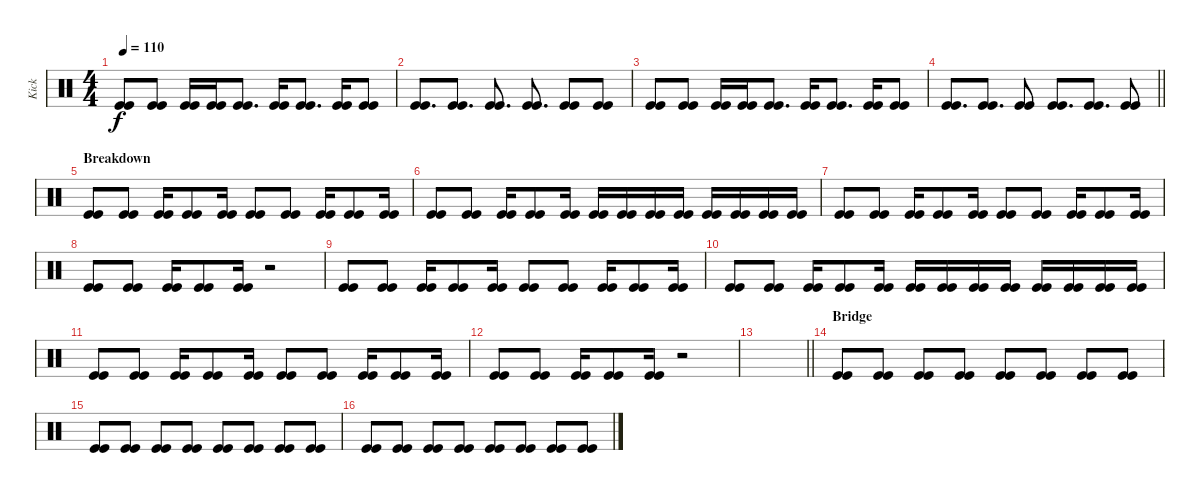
\track ("Kick" "Kick") {instrument percussion}
\staff {score}
\articulation defaults
\ts (4 4)
\tempo 110
\clef neutral
\ks c
("Kick (hit)" "Kick (hit)").8{dy f} ("Kick (hit)" "Kick (hit)").8 ("Kick (hit)" "Kick (hit)").16 ("Kick (hit)" "Kick (hit)").16 ("Kick (hit)" "Kick (hit)").8{d} ("Kick (hit)" "Kick (hit)").16 ("Kick (hit)" "Kick (hit)").8{d} ("Kick (hit)" "Kick (hit)").16 ("Kick (hit)" "Kick (hit)").8 |
("Kick (hit)" "Kick (hit)").8{d} ("Kick (hit)" "Kick (hit)").8{d} ("Kick (hit)" "Kick (hit)").8{d} ("Kick (hit)" "Kick (hit)").8{d} ("Kick (hit)" "Kick (hit)").8 ("Kick (hit)" "Kick (hit)").8 |
("Kick (hit)" "Kick (hit)").8 ("Kick (hit)" "Kick (hit)").8 ("Kick (hit)" "Kick (hit)").16 ("Kick (hit)" "Kick (hit)").16 ("Kick (hit)" "Kick (hit)").8{d} ("Kick (hit)" "Kick (hit)").16 ("Kick (hit)" "Kick (hit)").8{d} ("Kick (hit)" "Kick (hit)").16 ("Kick (hit)" "Kick (hit)").8 |
\barLineRight lightlight
("Kick (hit)" "Kick (hit)").8{d} ("Kick (hit)" "Kick (hit)").8{d} ("Kick (hit)" "Kick (hit)").8 ("Kick (hit)" "Kick (hit)").8{d} ("Kick (hit)" "Kick (hit)").8{d} ("Kick (hit)" "Kick (hit)").8 |
\section ("" "Breakdown")
("Kick (hit)" "Kick (hit)").8 ("Kick (hit)" "Kick (hit)").8 ("Kick (hit)" "Kick (hit)").16 ("Kick (hit)" "Kick (hit)").8 ("Kick (hit)" "Kick (hit)").16 ("Kick (hit)" "Kick (hit)").8 ("Kick (hit)" "Kick (hit)").8 ("Kick (hit)" "Kick (hit)").16 ("Kick (hit)" "Kick (hit)").8 ("Kick (hit)" "Kick (hit)").16 |
("Kick (hit)" "Kick (hit)").8 ("Kick (hit)" "Kick (hit)").8 ("Kick (hit)" "Kick (hit)").16 ("Kick (hit)" "Kick (hit)").8 ("Kick (hit)" "Kick (hit)").16 ("Kick (hit)" "Kick (hit)").16 ("Kick (hit)" "Kick (hit)").16 ("Kick (hit)" "Kick (hit)").16 ("Kick (hit)" "Kick (hit)").16 ("Kick (hit)" "Kick (hit)").16 ("Kick (hit)" "Kick (hit)").16 ("Kick (hit)" "Kick (hit)").16 ("Kick (hit)" "Kick (hit)").16 |
("Kick (hit)" "Kick (hit)").8 ("Kick (hit)" "Kick (hit)").8 ("Kick (hit)" "Kick (hit)").16 ("Kick (hit)" "Kick (hit)").8 ("Kick (hit)" "Kick (hit)").16 ("Kick (hit)" "Kick (hit)").8 ("Kick (hit)" "Kick (hit)").8 ("Kick (hit)" "Kick (hit)").16 ("Kick (hit)" "Kick (hit)").8 ("Kick (hit)" "Kick (hit)").16 |
("Kick (hit)" "Kick (hit)").8 ("Kick (hit)" "Kick (hit)").8 ("Kick (hit)" "Kick (hit)").16 ("Kick (hit)" "Kick (hit)").8 ("Kick (hit)" "Kick (hit)").16 r.2 |
("Kick (hit)" "Kick (hit)").8 ("Kick (hit)" "Kick (hit)").8 ("Kick (hit)" "Kick (hit)").16 ("Kick (hit)" "Kick (hit)").8 ("Kick (hit)" "Kick (hit)").16 ("Kick (hit)" "Kick (hit)").8 ("Kick (hit)" "Kick (hit)").8 ("Kick (hit)" "Kick (hit)").16 ("Kick (hit)" "Kick (hit)").8 ("Kick (hit)" "Kick (hit)").16 |
("Kick (hit)" "Kick (hit)").8 ("Kick (hit)" "Kick (hit)").8 ("Kick (hit)" "Kick (hit)").16 ("Kick (hit)" "Kick (hit)").8 ("Kick (hit)" "Kick (hit)").16 ("Kick (hit)" "Kick (hit)").16 ("Kick (hit)" "Kick (hit)").16 ("Kick (hit)" "Kick (hit)").16 ("Kick (hit)" "Kick (hit)").16 ("Kick (hit)" "Kick (hit)").16 ("Kick (hit)" "Kick (hit)").16 ("Kick (hit)" "Kick (hit)").16 ("Kick (hit)" "Kick (hit)").16 |
("Kick (hit)" "Kick (hit)").8 ("Kick (hit)" "Kick (hit)").8 ("Kick (hit)" "Kick (hit)").16 ("Kick (hit)" "Kick (hit)").8 ("Kick (hit)" "Kick (hit)").16 ("Kick (hit)" "Kick (hit)").8 ("Kick (hit)" "Kick (hit)").8 ("Kick (hit)" "Kick (hit)").16 ("Kick (hit)" "Kick (hit)").8 ("Kick (hit)" "Kick (hit)").16 |
("Kick (hit)" "Kick (hit)").8 ("Kick (hit)" "Kick (hit)").8 ("Kick (hit)" "Kick (hit)").16 ("Kick (hit)" "Kick (hit)").8 ("Kick (hit)" "Kick (hit)").16 r.2 |
\barLineRight lightlight
|
\section ("" "Bridge")
("Kick (hit)" "Kick (hit)").8 ("Kick (hit)" "Kick (hit)").8 ("Kick (hit)" "Kick (hit)").8 ("Kick (hit)" "Kick (hit)").8 ("Kick (hit)" "Kick (hit)").8 ("Kick (hit)" "Kick (hit)").8 ("Kick (hit)" "Kick (hit)").8 ("Kick (hit)" "Kick (hit)").8 |
("Kick (hit)" "Kick (hit)").8 ("Kick (hit)" "Kick (hit)").8 ("Kick (hit)" "Kick (hit)").8 ("Kick (hit)" "Kick (hit)").8 ("Kick (hit)" "Kick (hit)").8 ("Kick (hit)" "Kick (hit)").8 ("Kick (hit)" "Kick (hit)").8 ("Kick (hit)" "Kick (hit)").8 |
("Kick (hit)" "Kick (hit)").8 ("Kick (hit)" "Kick (hit)").8 ("Kick (hit)" "Kick (hit)").8 ("Kick (hit)" "Kick (hit)").8 ("Kick (hit)" "Kick (hit)").8 ("Kick (hit)" "Kick (hit)").8 ("Kick (hit)" "Kick (hit)").8 ("Kick (hit)" "Kick (hit)").8
